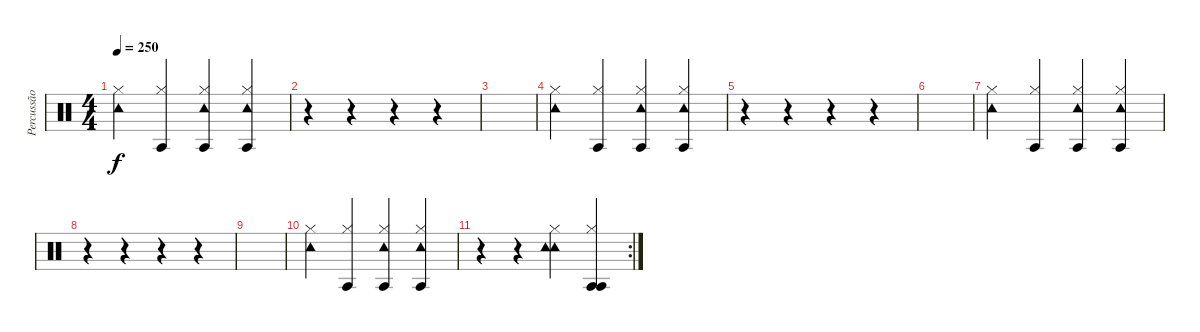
\track ("Percussão" "Percussão") {instrument percussion}
\staff {score}
\articulation defaults
\ts (4 4)
\tempo 250
\clef neutral
\ks c
("Tambourine (hit)" "Hi-Hat (closed)").4{dy f} ("Agogo tow (hit)" "Hi-Hat (closed)").4 ("Agogo tow (hit)" "Hi-Hat (closed)" "Tambourine (hit)").4 ("Agogo tow (hit)" "Hi-Hat (closed)" "Tambourine (hit)").4 |
r.4 r.4 r.4 r.4 |
|
("Tambourine (hit)" "Hi-Hat (closed)").4 ("Agogo tow (hit)" "Hi-Hat (closed)").4 ("Agogo tow (hit)" "Hi-Hat (closed)" "Tambourine (hit)").4 ("Agogo tow (hit)" "Hi-Hat (closed)" "Tambourine (hit)").4 |
r.4 r.4 r.4 r.4 |
|
("Tambourine (hit)" "Hi-Hat (closed)").4 ("Agogo tow (hit)" "Hi-Hat (closed)").4 ("Agogo tow (hit)" "Hi-Hat (closed)" "Tambourine (hit)").4 ("Agogo tow (hit)" "Hi-Hat (closed)" "Tambourine (hit)").4 |
r.4 r.4 r.4 r.4 |
|
("Tambourine (hit)" "Hi-Hat (closed)").4 ("Agogo tow (hit)" "Hi-Hat (closed)").4 ("Agogo tow (hit)" "Hi-Hat (closed)" "Tambourine (hit)").4 ("Agogo tow (hit)" "Hi-Hat (closed)" "Tambourine (hit)").4 |
\rc 2
r.4 r.4 ("Tambourine (hit)" "Tambourine (hit)" "Hi-Hat (closed)").4 ("Hi-Hat (closed)" "Agogo tow (hit)" "Agogo tow (hit)").4
